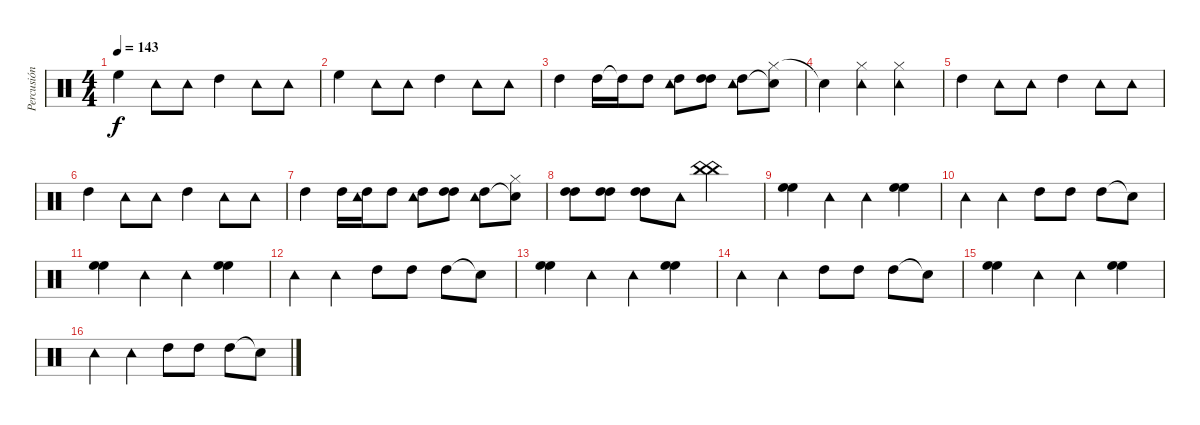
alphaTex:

\track ("Percusión" "Percusión") {instrument percussion}
\staff {score}
\articulation defaults
\ts (4 4)
\tempo 143
\clef neutral
\ks c "High Floor Tom (hit)".4{dy f} "Tambourine (hit)".8 "Tambourine (hit)".8 "High Tom (hit)".4 "Tambourine (hit)".8 "Tambourine (hit)".8
|
"High Floor Tom (hit)".4 "Tambourine (hit)".8 "Tambourine (hit)".8 "High Tom (hit)".4 "Tambourine (hit)".8 "Tambourine (hit)".8 |
"High Tom (hit)".4 "High Tom (hit)".16 "High Tom (hit)"{t}.16 "High Tom (hit)".8 ("High Tom (hit)" "Tambourine (hit)").8 ("High Tom (hit)" "High Tom (hit)").8 ("High Tom (hit)" "Tambourine (hit)").8 ("Hi-Hat (closed)" "Snare (hit)"{t}).8 |
"Snare (hit)"{t}.4 ("Hi-Hat (closed)" "Tambourine (hit)").4 ("Hi-Hat (closed)" "Tambourine (hit)").2 |
"High Tom (hit)".4 "Tambourine (hit)".8 "Tambourine (hit)".8 "High Tom (hit)".4 "Tambourine (hit)".8 "Tambourine (hit)".8 |
"High Tom (hit)".4 "Tambourine (hit)".8 "Tambourine (hit)".8 "High Tom (hit)".4 "Tambourine (hit)".8 "Tambourine (hit)".8 |
"High Tom (hit)".4 "High Tom (hit)".16 ("High Tom (hit)" "Tambourine (hit)").16 "High Tom (hit)".8 ("High Tom (hit)" "Tambourine (hit)").8 ("High Tom (hit)" "High Tom (hit)").8 ("High Tom (hit)" "Tambourine (hit)").8 ("Hi-Hat (closed)" "Snare (hit)"{t}).8 |
("High Tom (hit)" "High Tom (hit)").8 ("High Tom (hit)" "High Tom (hit)").8 ("High Tom (hit)" "High Tom (hit)").8 "Tambourine (hit)".8 ("China (hit)" "China (hit)").2 |
("High Floor Tom (hit)" "High Floor Tom (hit)").4 "Tambourine (hit)".4 "Tambourine (hit)".4 ("High Floor Tom (hit)" "High Floor Tom (hit)").4 |
"Tambourine (hit)".4 "Tambourine (hit)".4 "High Tom (hit)".8 "High Tom (hit)".8 "High Tom (hit)".8 "Snare (hit)"{t}.8 |
("High Floor Tom (hit)" "High Floor Tom (hit)").4 "Tambourine (hit)".4 "Tambourine (hit)".4 ("High Floor Tom (hit)" "High Floor Tom (hit)").4 |
"Tambourine (hit)".4 "Tambourine (hit)".4 "High Tom (hit)".8 "High Tom (hit)".8 "High Tom (hit)".8 "Snare (hit)"{t}.8 |
("High Floor Tom (hit)" "High Floor Tom (hit)").4 "Tambourine (hit)".4 "Tambourine (hit)".4 ("High Floor Tom (hit)" "High Floor Tom (hit)").4 |
"Tambourine (hit)".4 "Tambourine (hit)".4 "High Tom (hit)".8 "High Tom (hit)".8 "High Tom (hit)".8 "Snare (hit)"{t}.8 |
("High Floor Tom (hit)" "High Floor Tom (hit)").4 "Tambourine (hit)".4 "Tambourine (hit)".4 ("High Floor Tom (hit)" "High Floor Tom (hit)").4 |
"Tambourine (hit)".4 "Tambourine (hit)".4 "High Tom (hit)".8 "High Tom (hit)".8 "High Tom (hit)".8 "Snare (hit)"{t}.8
